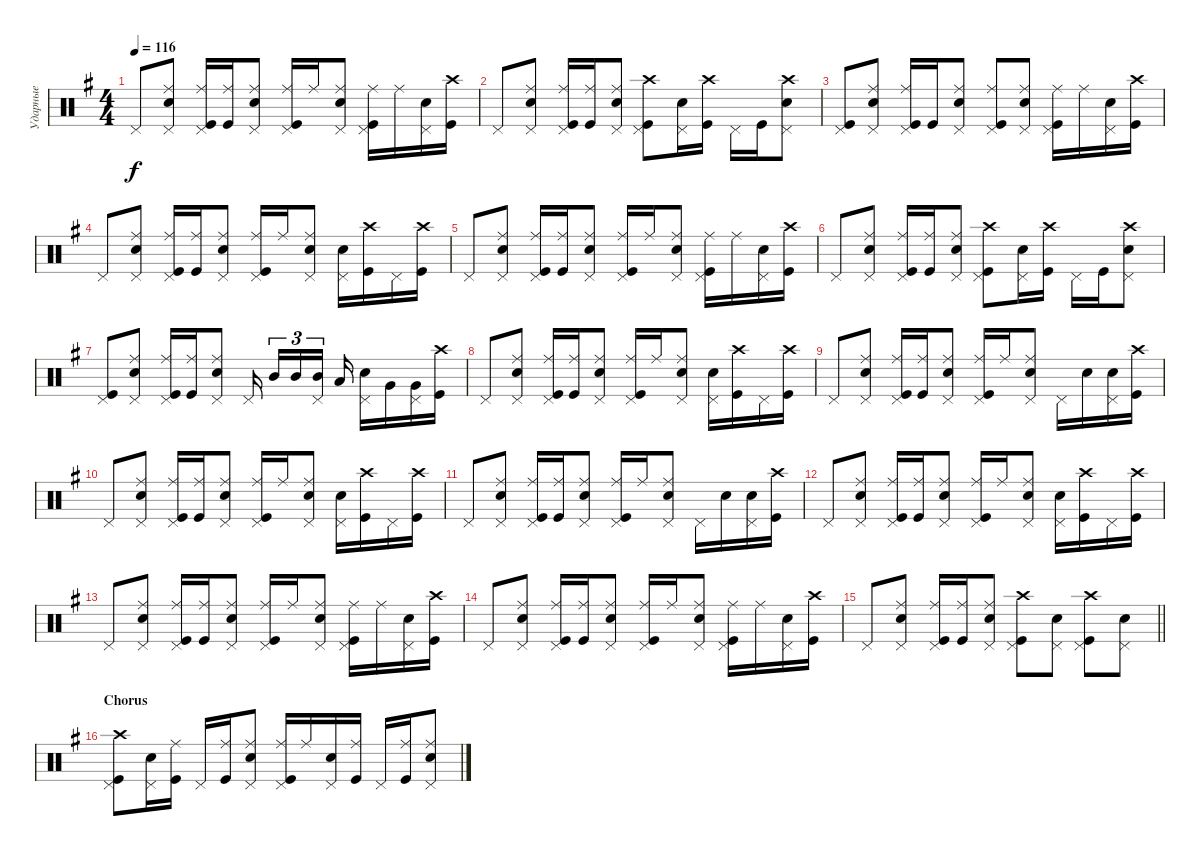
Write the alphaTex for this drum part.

\track ("Ударные" "Ударные") {instrument percussion}
\staff {score}
\articulation defaults
\ts (4 4)
\tempo 116
\clef neutral
\ks eminor "Pedal Hi-Hat (hit)".8{dy f}
("Snare (hit) 2" "Pedal Hi-Hat (hit)" "Ride (middle)").8 ("Kick (hit)" "Pedal Hi-Hat (hit)" "Ride (middle)").16 ("Kick (hit)" "Ride (middle)").16 ("Snare (hit) 2" "Pedal Hi-Hat (hit)" "Ride (middle)").8 ("Kick (hit)" "Pedal Hi-Hat (hit)" "Ride (middle)").16 "Ride (middle)".16 ("Snare (hit) 2" "Pedal Hi-Hat (hit)" "Ride (middle)").8 ("Kick (hit)" "Ride (middle)" "Pedal Hi-Hat (hit)").16 "Ride (middle)".16 ("Snare (hit) 2" "Pedal Hi-Hat (hit)").16 ("Kick (hit)" "Crash high (hit)").16 |
"Pedal Hi-Hat (hit)".8 ("Snare (hit) 2" "Ride (middle)" "Pedal Hi-Hat (hit)").8 ("Kick (hit)" "Ride (middle)" "Pedal Hi-Hat (hit)").16 ("Kick (hit)" "Ride (middle)").16 ("Snare (hit) 2" "Ride (middle)" "Pedal Hi-Hat (hit)").8 ("Kick (hit)" "Crash high (hit)" "Pedal Hi-Hat (hit)").8 ("Snare (hit) 2" "Pedal Hi-Hat (hit)").16 ("Kick (hit)" "Crash high (hit)").16 "Pedal Hi-Hat (hit)".16 "Kick (hit)".16 ("Snare (hit) 2" "Crash high (hit)" "Pedal Hi-Hat (hit)").8 |
("Kick (hit)" "Pedal Hi-Hat (hit)").8 ("Snare (hit) 2" "Pedal Hi-Hat (hit)" "Ride (middle)").8 ("Kick (hit)" "Pedal Hi-Hat (hit)" "Ride (middle)").16 "Kick (hit)".16 ("Snare (hit) 2" "Pedal Hi-Hat (hit)" "Ride (middle)").8 ("Kick (hit)" "Pedal Hi-Hat (hit)" "Ride (middle)").8{bd 120} ("Snare (hit) 2" "Pedal Hi-Hat (hit)" "Ride (middle)").8 ("Kick (hit)" "Pedal Hi-Hat (hit)" "Ride (middle)").16{bd 120} "Ride (middle)".16 ("Snare (hit) 2" "Pedal Hi-Hat (hit)").16 ("Kick (hit)" "Crash high (hit)").16 |
"Pedal Hi-Hat (hit)".8 ("Snare (hit) 2" "Pedal Hi-Hat (hit)" "Ride (middle)").8 ("Kick (hit)" "Pedal Hi-Hat (hit)" "Ride (middle)").16 ("Kick (hit)" "Ride (middle)").16 ("Snare (hit) 2" "Pedal Hi-Hat (hit)" "Ride (middle)").8 ("Pedal Hi-Hat (hit)" "Kick (hit)" "Ride (middle)").16 "Ride (middle)".16 ("Snare (hit) 2" "Pedal Hi-Hat (hit)" "Ride (middle)").8 ("Snare (hit) 2" "Pedal Hi-Hat (hit)").16 ("Kick (hit)" "Crash high (hit)").16 "Pedal Hi-Hat (hit)".16 ("Kick (hit)" "Crash high (hit)").16 |
"Pedal Hi-Hat (hit)".8 ("Snare (hit) 2" "Pedal Hi-Hat (hit)" "Ride (middle)").8 ("Kick (hit)" "Pedal Hi-Hat (hit)" "Ride (middle)").16 ("Kick (hit)" "Ride (middle)").16 ("Snare (hit) 2" "Pedal Hi-Hat (hit)" "Ride (middle)").8 ("Kick (hit)" "Pedal Hi-Hat (hit)" "Ride (middle)").16 "Ride (middle)".16 ("Snare (hit) 2" "Pedal Hi-Hat (hit)" "Ride (middle)").8 ("Kick (hit)" "Ride (middle)" "Pedal Hi-Hat (hit)").16 "Ride (middle)".16 ("Snare (hit) 2" "Pedal Hi-Hat (hit)").16 ("Kick (hit)" "Crash high (hit)").16 |
"Pedal Hi-Hat (hit)".8 ("Snare (hit) 2" "Ride (middle)" "Pedal Hi-Hat (hit)").8 ("Kick (hit)" "Ride (middle)" "Pedal Hi-Hat (hit)").16 ("Kick (hit)" "Ride (middle)").16 ("Snare (hit) 2" "Ride (middle)" "Pedal Hi-Hat (hit)").8 ("Kick (hit)" "Crash high (hit)" "Pedal Hi-Hat (hit)").8 ("Snare (hit) 2" "Pedal Hi-Hat (hit)").16 ("Kick (hit)" "Crash high (hit)").16 "Pedal Hi-Hat (hit)".16 "Kick (hit)".16 ("Snare (hit) 2" "Crash high (hit)" "Pedal Hi-Hat (hit)").8 |
("Kick (hit)" "Pedal Hi-Hat (hit)").8 ("Snare (hit) 2" "Ride (middle)" "Pedal Hi-Hat (hit)").8 ("Kick (hit)" "Ride (middle)" "Pedal Hi-Hat (hit)").16 ("Kick (hit)" "Ride (middle)").16 ("Snare (hit) 2" "Ride (middle)" "Pedal Hi-Hat (hit)").8 "Pedal Hi-Hat (hit)".16{beam splitsecondary} "Mid Tom (hit)".16{tu (3 2)} "Mid Tom (hit)".16{tu (3 2)} ("Mid Tom (hit)" "Pedal Hi-Hat (hit)").16{tu (3 2) beam splitsecondary} "Low Tom (hit)".16 ("Snare (hit) 2" "Pedal Hi-Hat (hit)").16 "Very Low Tom (hit)".16 ("Pedal Hi-Hat (hit)" "Very Low Tom (hit)").16 ("Kick (hit)" "Crash high (hit)").16 |
"Pedal Hi-Hat (hit)".8 ("Snare (hit) 2" "Pedal Hi-Hat (hit)" "Ride (middle)").8 ("Kick (hit)" "Pedal Hi-Hat (hit)" "Ride (middle)").16 ("Kick (hit)" "Ride (middle)").16 ("Snare (hit) 2" "Pedal Hi-Hat (hit)" "Ride (middle)").8 ("Pedal Hi-Hat (hit)" "Kick (hit)" "Ride (middle)").16 "Ride (middle)".16 ("Snare (hit) 2" "Pedal Hi-Hat (hit)" "Ride (middle)").8 ("Snare (hit) 2" "Pedal Hi-Hat (hit)").16 ("Kick (hit)" "Crash high (hit)").16 "Pedal Hi-Hat (hit)".16 ("Kick (hit)" "Crash high (hit)").16 |
"Pedal Hi-Hat (hit)".8 ("Snare (hit) 2" "Pedal Hi-Hat (hit)" "Ride (middle)").8 ("Kick (hit)" "Pedal Hi-Hat (hit)" "Ride (middle)").16 ("Kick (hit)" "Ride (middle)").16 ("Snare (hit) 2" "Pedal Hi-Hat (hit)" "Ride (middle)").8 ("Pedal Hi-Hat (hit)" "Kick (hit)" "Ride (middle)").16 "Ride (middle)".16 ("Snare (hit) 2" "Pedal Hi-Hat (hit)" "Ride (middle)").8 "Pedal Hi-Hat (hit)".16 "Snare (hit) 2".16 ("Snare (hit) 2" "Pedal Hi-Hat (hit)").16 ("Kick (hit)" "Crash high (hit)").16 |
"Pedal Hi-Hat (hit)".8 ("Snare (hit) 2" "Pedal Hi-Hat (hit)" "Ride (middle)").8 ("Kick (hit)" "Pedal Hi-Hat (hit)" "Ride (middle)").16 ("Kick (hit)" "Ride (middle)").16 ("Snare (hit) 2" "Pedal Hi-Hat (hit)" "Ride (middle)").8 ("Pedal Hi-Hat (hit)" "Kick (hit)" "Ride (middle)").16 "Ride (middle)".16 ("Snare (hit) 2" "Pedal Hi-Hat (hit)" "Ride (middle)").8 ("Snare (hit) 2" "Pedal Hi-Hat (hit)").16 ("Kick (hit)" "Crash high (hit)").16 "Pedal Hi-Hat (hit)".16 ("Kick (hit)" "Crash high (hit)").16 |
"Pedal Hi-Hat (hit)".8 ("Snare (hit) 2" "Pedal Hi-Hat (hit)" "Ride (middle)").8 ("Kick (hit)" "Pedal Hi-Hat (hit)" "Ride (middle)").16 ("Kick (hit)" "Ride (middle)").16 ("Snare (hit) 2" "Pedal Hi-Hat (hit)" "Ride (middle)").8 ("Pedal Hi-Hat (hit)" "Kick (hit)" "Ride (middle)").16 "Ride (middle)".16 ("Snare (hit) 2" "Pedal Hi-Hat (hit)" "Ride (middle)").8 "Pedal Hi-Hat (hit)".16 "Snare (hit) 2".16 ("Snare (hit) 2" "Pedal Hi-Hat (hit)").16 ("Kick (hit)" "Crash high (hit)").16 |
"Pedal Hi-Hat (hit)".8 ("Snare (hit) 2" "Pedal Hi-Hat (hit)" "Ride (middle)").8 ("Kick (hit)" "Pedal Hi-Hat (hit)" "Ride (middle)").16 ("Kick (hit)" "Ride (middle)").16 ("Snare (hit) 2" "Pedal Hi-Hat (hit)" "Ride (middle)").8 ("Pedal Hi-Hat (hit)" "Kick (hit)" "Ride (middle)").16 "Ride (middle)".16 ("Snare (hit) 2" "Pedal Hi-Hat (hit)" "Ride (middle)").8 ("Snare (hit) 2" "Pedal Hi-Hat (hit)").16 ("Kick (hit)" "Crash high (hit)").16 "Pedal Hi-Hat (hit)".16 ("Kick (hit)" "Crash high (hit)").16 |
"Pedal Hi-Hat (hit)".8 ("Snare (hit) 2" "Pedal Hi-Hat (hit)" "Ride (middle)").8 ("Kick (hit)" "Pedal Hi-Hat (hit)" "Ride (middle)").16 ("Kick (hit)" "Ride (middle)").16 ("Snare (hit) 2" "Pedal Hi-Hat (hit)" "Ride (middle)").8 ("Kick (hit)" "Pedal Hi-Hat (hit)" "Ride (middle)").16 "Ride (middle)".16 ("Snare (hit) 2" "Pedal Hi-Hat (hit)" "Ride (middle)").8 ("Kick (hit)" "Ride (middle)" "Pedal Hi-Hat (hit)").16 "Ride (middle)".16 ("Snare (hit) 2" "Pedal Hi-Hat (hit)").16 ("Kick (hit)" "Crash high (hit)").16 |
"Pedal Hi-Hat (hit)".8 ("Snare (hit) 2" "Pedal Hi-Hat (hit)" "Ride (middle)").8 ("Kick (hit)" "Pedal Hi-Hat (hit)" "Ride (middle)").16 ("Kick (hit)" "Ride (middle)").16 ("Snare (hit) 2" "Pedal Hi-Hat (hit)" "Ride (middle)").8 ("Kick (hit)" "Pedal Hi-Hat (hit)" "Ride (middle)").16 "Ride (middle)".16 ("Snare (hit) 2" "Pedal Hi-Hat (hit)" "Ride (middle)").8 ("Kick (hit)" "Ride (middle)" "Pedal Hi-Hat (hit)").16 "Ride (middle)".16 ("Snare (hit) 2" "Pedal Hi-Hat (hit)").16 ("Kick (hit)" "Crash high (hit)").16 |
\barLineRight lightlight "Pedal Hi-Hat (hit)".8
("Snare (hit) 2" "Pedal Hi-Hat (hit)" "Ride (middle)").8 ("Kick (hit)" "Pedal Hi-Hat (hit)" "Ride (middle)").16 ("Kick (hit)" "Ride (middle)").16 ("Snare (hit) 2" "Pedal Hi-Hat (hit)" "Ride (middle)").8 ("Kick (hit)" "Crash high (hit)" "Pedal Hi-Hat (hit)").8 ("Snare (hit) 2" "Pedal Hi-Hat (hit)").8 ("Kick (hit)" "Crash high (hit)" "Pedal Hi-Hat (hit)").8 ("Snare (hit) 2" "Pedal Hi-Hat (hit)").8 |
\section ("" "Chorus")
("Kick (hit)" "Crash high (hit)" "Pedal Hi-Hat (hit)").8 ("Snare (hit) 2" "Pedal Hi-Hat (hit)").16 ("Kick (hit)" "Ride (middle)").16 "Pedal Hi-Hat (hit)".16 ("Ride (middle)" "Kick (hit)").16 ("Snare (hit) 2" "Ride (middle)" "Pedal Hi-Hat (hit)").8 ("Kick (hit)" "Ride (middle)" "Pedal Hi-Hat (hit)").16 "Ride (middle)".16 ("Snare (hit) 2" "Pedal Hi-Hat (hit)").16 ("Kick (hit)" "Ride (middle)").16 "Pedal Hi-Hat (hit)".16 ("Ride (middle)" "Kick (hit)").16 ("Ride (middle)" "Snare (hit) 2" "Pedal Hi-Hat (hit)").8
